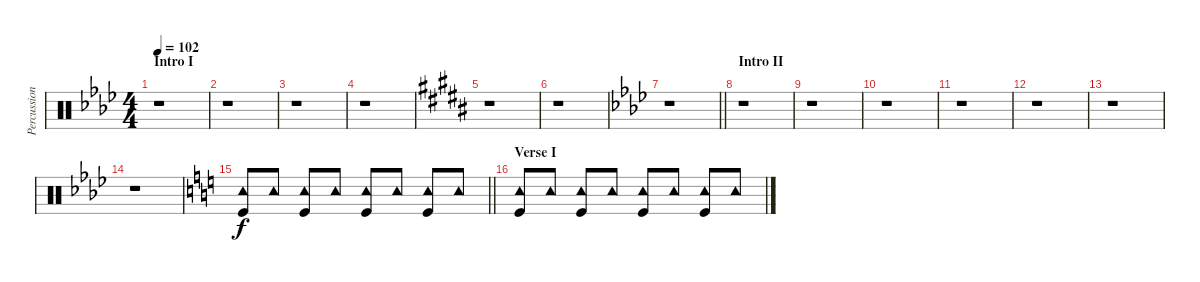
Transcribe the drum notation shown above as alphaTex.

\track ("Percussion" "Percussion") {instrument percussion}
\staff {score}
\articulation defaults
\ts (4 4)
\section ("" "Intro I")
\tempo 102
\clef neutral
\ks ab
r.1{dy f} |
r.1 |
r.1 |
r.1 |
\ks b
r.1 |
r.1 |
\barLineRight lightlight
\ks ab
r.1 |
\section ("" "Intro II")
r.1 |
r.1 |
r.1 |
r.1 |
r.1 |
r.1 |
r.1 |
\barLineRight lightlight
\ks c
("Tambourine (hit)" "Kick (hit)").8 "Tambourine (hit)".8 ("Tambourine (hit)" "Kick (hit)").8 "Tambourine (hit)".8 ("Tambourine (hit)" "Kick (hit)").8 "Tambourine (hit)".8 ("Tambourine (hit)" "Kick (hit)").8 "Tambourine (hit)".8 |
\section ("" "Verse I")
("Tambourine (hit)" "Kick (hit)").8 "Tambourine (hit)".8 ("Tambourine (hit)" "Kick (hit)").8 "Tambourine (hit)".8 ("Tambourine (hit)" "Kick (hit)").8 "Tambourine (hit)".8 ("Tambourine (hit)" "Kick (hit)").8 "Tambourine (hit)".8
